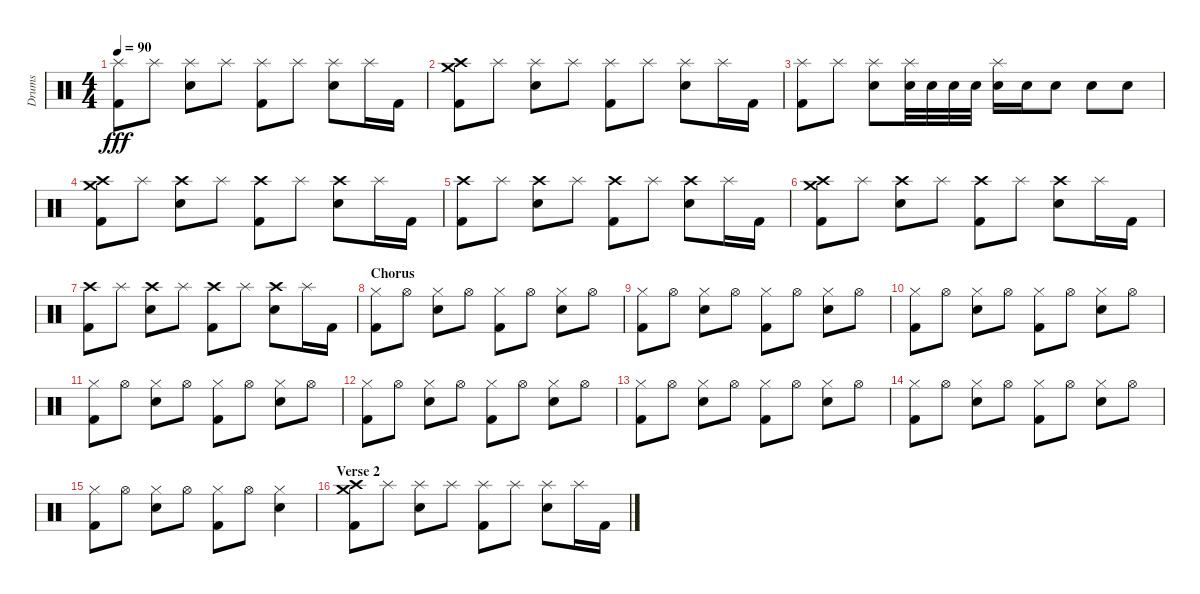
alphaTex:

\track ("Drums" "Drums") {instrument percussion}
\staff {score}
\articulation defaults
\ts (4 4)
\tempo 90
\clef neutral
\ks c
("Splash (hit)" "Kick (hit) 2").8{dy fff} "Splash (hit)".8 ("Splash (hit)" "Electric Snare (hit)").8 "Splash (hit)".8 ("Splash (hit)" "Kick (hit) 2").8 "Splash (hit)".8 ("Splash (hit)" "Electric Snare (hit)").8 "Splash (hit)".16 "Kick (hit) 2".16 |
("Crash high (hit)" "Crash medium (hit)" "Kick (hit) 2").8 "Splash (hit)".8 ("Splash (hit)" "Electric Snare (hit)").8 "Splash (hit)".8 ("Splash (hit)" "Kick (hit) 2").8 "Splash (hit)".8 ("Splash (hit)" "Electric Snare (hit)").8 "Splash (hit)".16 "Kick (hit) 2".16 |
("Splash (hit)" "Kick (hit) 2").8 "Splash (hit)".8 ("Splash (hit)" "Electric Snare (hit)").8 ("Splash (hit)" "Electric Snare (hit)").32 "Electric Snare (hit)".32 "Electric Snare (hit)".32 "Electric Snare (hit)".32 ("Splash (hit)" "Electric Snare (hit)").16 "Electric Snare (hit)".16 "Electric Snare (hit)".8 "Electric Snare (hit)".8 "Electric Snare (hit)".8 |
("Crash high (hit)" "Crash medium (hit)" "Kick (hit) 2").8 "Splash (hit)".8 ("Crash high (hit)" "Electric Snare (hit)").8 "Splash (hit)".8 ("Crash high (hit)" "Kick (hit) 2").8 "Splash (hit)".8 ("Crash high (hit)" "Electric Snare (hit)").8 "Splash (hit)".16 "Kick (hit) 2".16 |
("Crash high (hit)" "Kick (hit) 2").8 "Splash (hit)".8 ("Crash high (hit)" "Electric Snare (hit)").8 "Splash (hit)".8 ("Crash high (hit)" "Kick (hit) 2").8 "Splash (hit)".8 ("Crash high (hit)" "Electric Snare (hit)").8 "Splash (hit)".16 "Kick (hit) 2".16 |
("Crash high (hit)" "Crash medium (hit)" "Kick (hit) 2").8 "Splash (hit)".8 ("Crash high (hit)" "Electric Snare (hit)").8 "Splash (hit)".8 ("Crash high (hit)" "Kick (hit) 2").8 "Splash (hit)".8 ("Crash high (hit)" "Electric Snare (hit)").8 "Splash (hit)".16 "Kick (hit) 2".16 |
("Crash high (hit)" "Kick (hit) 2").8 "Splash (hit)".8 ("Crash high (hit)" "Electric Snare (hit)").8 "Splash (hit)".8 ("Crash high (hit)" "Kick (hit) 2").8 "Splash (hit)".8 ("Crash high (hit)" "Electric Snare (hit)").8 "Splash (hit)".16 "Kick (hit) 2".16 |
\section ("" "Chorus")
("Hi-Hat (closed)" "Kick (hit) 2").8 "Hi-Hat (open)".8 ("Hi-Hat (closed)" "Electric Snare (hit)").8 "Hi-Hat (open)".8 ("Hi-Hat (closed)" "Kick (hit) 2").8 "Hi-Hat (open)".8 ("Hi-Hat (closed)" "Electric Snare (hit)").8 "Hi-Hat (open)".8 |
("Hi-Hat (closed)" "Kick (hit) 2").8 "Hi-Hat (open)".8 ("Hi-Hat (closed)" "Electric Snare (hit)").8 "Hi-Hat (open)".8 ("Hi-Hat (closed)" "Kick (hit) 2").8 "Hi-Hat (open)".8 ("Hi-Hat (closed)" "Electric Snare (hit)").8 "Hi-Hat (open)".8 |
("Hi-Hat (closed)" "Kick (hit) 2").8 "Hi-Hat (open)".8 ("Hi-Hat (closed)" "Electric Snare (hit)").8 "Hi-Hat (open)".8 ("Hi-Hat (closed)" "Kick (hit) 2").8 "Hi-Hat (open)".8 ("Hi-Hat (closed)" "Electric Snare (hit)").8 "Hi-Hat (open)".8 |
("Hi-Hat (closed)" "Kick (hit) 2").8 "Hi-Hat (open)".8 ("Hi-Hat (closed)" "Electric Snare (hit)").8 "Hi-Hat (open)".8 ("Hi-Hat (closed)" "Kick (hit) 2").8 "Hi-Hat (open)".8 ("Hi-Hat (closed)" "Electric Snare (hit)").8 "Hi-Hat (open)".8 |
("Hi-Hat (closed)" "Kick (hit) 2").8 "Hi-Hat (open)".8 ("Hi-Hat (closed)" "Electric Snare (hit)").8 "Hi-Hat (open)".8 ("Hi-Hat (closed)" "Kick (hit) 2").8 "Hi-Hat (open)".8 ("Hi-Hat (closed)" "Electric Snare (hit)").8 "Hi-Hat (open)".8 |
("Hi-Hat (closed)" "Kick (hit) 2").8 "Hi-Hat (open)".8 ("Hi-Hat (closed)" "Electric Snare (hit)").8 "Hi-Hat (open)".8 ("Hi-Hat (closed)" "Kick (hit) 2").8 "Hi-Hat (open)".8 ("Hi-Hat (closed)" "Electric Snare (hit)").8 "Hi-Hat (open)".8 |
("Hi-Hat (closed)" "Kick (hit) 2").8 "Hi-Hat (open)".8 ("Hi-Hat (closed)" "Electric Snare (hit)").8 "Hi-Hat (open)".8 ("Hi-Hat (closed)" "Kick (hit) 2").8 "Hi-Hat (open)".8 ("Hi-Hat (closed)" "Electric Snare (hit)").8 "Hi-Hat (open)".8 |
("Hi-Hat (closed)" "Kick (hit) 2").8 "Hi-Hat (open)".8 ("Hi-Hat (closed)" "Electric Snare (hit)").8 "Hi-Hat (open)".8 ("Hi-Hat (closed)" "Kick (hit) 2").8 "Hi-Hat (open)".8 ("Hi-Hat (closed)" "Electric Snare (hit)").4 |
\section ("" "Verse 2")
("Crash high (hit)" "Crash medium (hit)" "Kick (hit) 2").8 "Splash (hit)".8 ("Splash (hit)" "Electric Snare (hit)").8 "Splash (hit)".8 ("Splash (hit)" "Kick (hit) 2").8 "Splash (hit)".8 ("Splash (hit)" "Electric Snare (hit)").8 "Splash (hit)".16 "Kick (hit) 2".16
